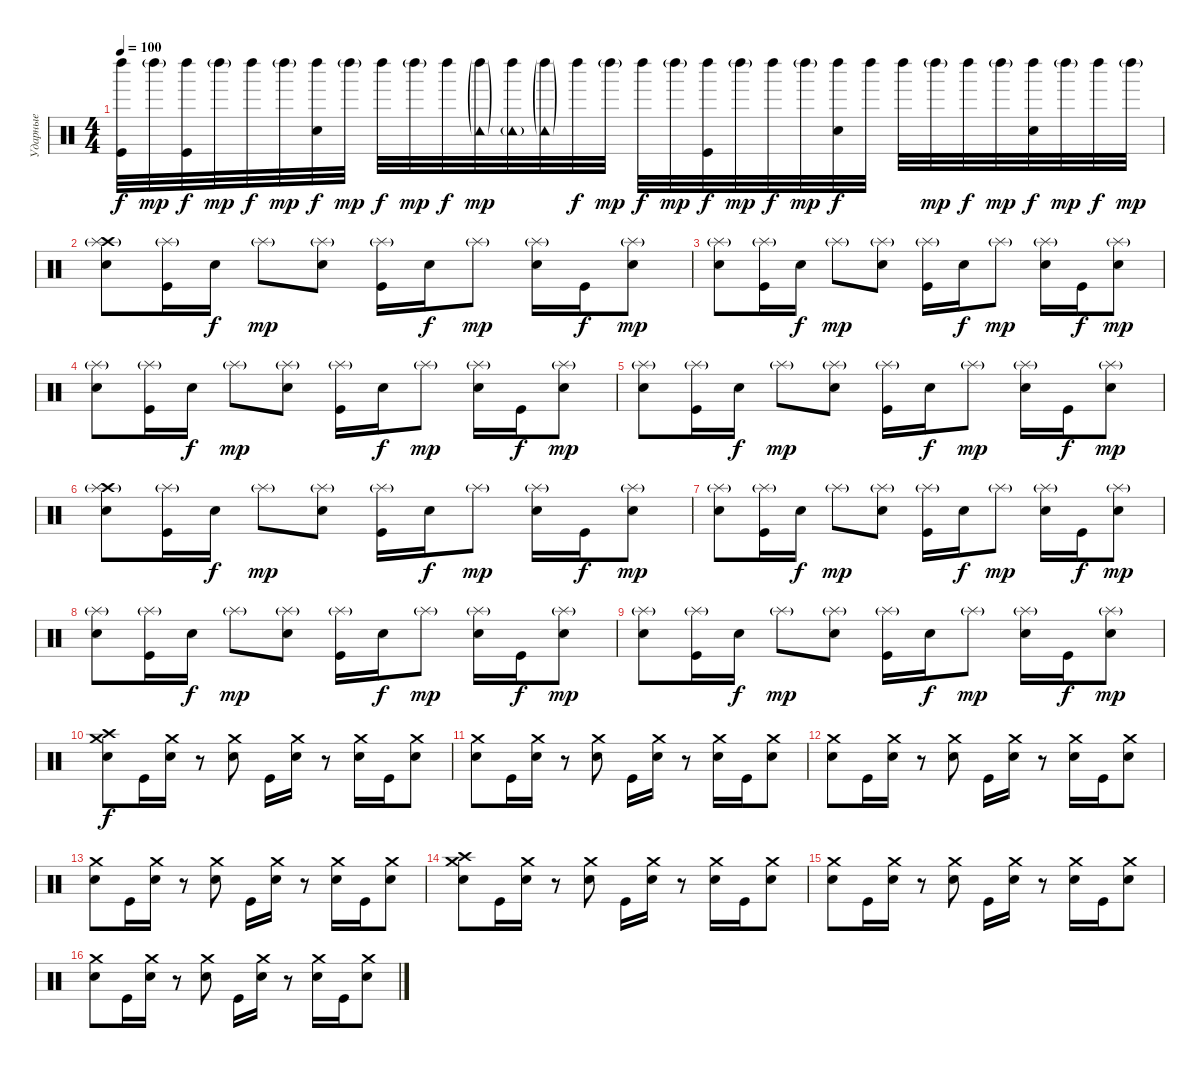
\track ("Ударные" "Ударные") {instrument percussion}
\staff {score}
\articulation defaults
\ts (4 4)
\tempo 100
\clef neutral
\ks c
("Left Maraca (hit)" "Kick (hit)").32{dy f} "Left Maraca (hit)"{g}.32{dy mp} ("Left Maraca (hit)" "Kick (hit)").32{dy f} "Left Maraca (hit)"{g}.32{dy mp} "Left Maraca (hit)".32{dy f} "Left Maraca (hit)"{g}.32{dy mp} ("Left Maraca (hit)" "Electric Snare (hit)").32{dy f} "Left Maraca (hit)"{g}.32{dy mp} "Left Maraca (hit)".32{dy f} "Left Maraca (hit)"{g}.32{dy mp} "Left Maraca (hit)".32{dy f} ("Left Maraca (hit)"{g} "Tambourine (hit)"{g}).32{dy mp} ("Left Maraca (hit)" "Tambourine (hit)"{g}).32 ("Left Maraca (hit)"{g} "Tambourine (hit)"{g}).32 "Left Maraca (hit)".32{dy f} "Left Maraca (hit)"{g}.32{dy mp} "Left Maraca (hit)".32{dy f} "Left Maraca (hit)"{g}.32{dy mp} ("Left Maraca (hit)" "Kick (hit)").32{dy f} "Left Maraca (hit)"{g}.32{dy mp} "Left Maraca (hit)".32{dy f} "Left Maraca (hit)"{g}.32{dy mp} ("Left Maraca (hit)" "Electric Snare (hit)").32{dy f} "Left Maraca (hit)".32 "Left Maraca (hit)".32 "Left Maraca (hit)"{g}.32{dy mp} "Left Maraca (hit)".32{dy f} "Left Maraca (hit)"{g}.32{dy mp} ("Left Maraca (hit)" "Electric Snare (hit)").32{dy f} "Left Maraca (hit)"{g}.32{dy mp} "Left Maraca (hit)".32{dy f} "Left Maraca (hit)"{g}.32{dy mp} |
("Crash high (hit)" "Splash (hit)"{g} "Electric Snare (hit)").8 ("Splash (hit)"{g} "Kick (hit)").16 "Electric Snare (hit)".16{dy f} "Splash (hit)"{g}.8{dy mp} ("Splash (hit)"{g} "Electric Snare (hit)").8 ("Splash (hit)"{g} "Kick (hit)").16 "Electric Snare (hit)".16{dy f} "Splash (hit)"{g}.8{dy mp} ("Splash (hit)"{g} "Electric Snare (hit)").16 "Kick (hit)".16{dy f} ("Splash (hit)"{g} "Electric Snare (hit)").8{dy mp} |
("Splash (hit)"{g} "Electric Snare (hit)").8 ("Splash (hit)"{g} "Kick (hit)").16 "Electric Snare (hit)".16{dy f} "Splash (hit)"{g}.8{dy mp} ("Splash (hit)"{g} "Electric Snare (hit)").8 ("Splash (hit)"{g} "Kick (hit)").16 "Electric Snare (hit)".16{dy f} "Splash (hit)"{g}.8{dy mp} ("Splash (hit)"{g} "Electric Snare (hit)").16 "Kick (hit)".16{dy f} ("Splash (hit)"{g} "Electric Snare (hit)").8{dy mp} |
("Splash (hit)"{g} "Electric Snare (hit)").8 ("Splash (hit)"{g} "Kick (hit)").16 "Electric Snare (hit)".16{dy f} "Splash (hit)"{g}.8{dy mp} ("Splash (hit)"{g} "Electric Snare (hit)").8 ("Splash (hit)"{g} "Kick (hit)").16 "Electric Snare (hit)".16{dy f} "Splash (hit)"{g}.8{dy mp} ("Splash (hit)"{g} "Electric Snare (hit)").16 "Kick (hit)".16{dy f} ("Splash (hit)"{g} "Electric Snare (hit)").8{dy mp} |
("Splash (hit)"{g} "Electric Snare (hit)").8 ("Splash (hit)"{g} "Kick (hit)").16 "Electric Snare (hit)".16{dy f} "Splash (hit)"{g}.8{dy mp} ("Splash (hit)"{g} "Electric Snare (hit)").8 ("Splash (hit)"{g} "Kick (hit)").16 "Electric Snare (hit)".16{dy f} "Splash (hit)"{g}.8{dy mp} ("Splash (hit)"{g} "Electric Snare (hit)").16 "Kick (hit)".16{dy f} ("Splash (hit)"{g} "Electric Snare (hit)").8{dy mp} |
("Crash high (hit)" "Splash (hit)"{g} "Electric Snare (hit)").8 ("Splash (hit)"{g} "Kick (hit)").16 "Electric Snare (hit)".16{dy f} "Splash (hit)"{g}.8{dy mp} ("Splash (hit)"{g} "Electric Snare (hit)").8 ("Splash (hit)"{g} "Kick (hit)").16 "Electric Snare (hit)".16{dy f} "Splash (hit)"{g}.8{dy mp} ("Splash (hit)"{g} "Electric Snare (hit)").16 "Kick (hit)".16{dy f} ("Splash (hit)"{g} "Electric Snare (hit)").8{dy mp} |
("Splash (hit)"{g} "Electric Snare (hit)").8 ("Splash (hit)"{g} "Kick (hit)").16 "Electric Snare (hit)".16{dy f} "Splash (hit)"{g}.8{dy mp} ("Splash (hit)"{g} "Electric Snare (hit)").8 ("Splash (hit)"{g} "Kick (hit)").16 "Electric Snare (hit)".16{dy f} "Splash (hit)"{g}.8{dy mp} ("Splash (hit)"{g} "Electric Snare (hit)").16 "Kick (hit)".16{dy f} ("Splash (hit)"{g} "Electric Snare (hit)").8{dy mp} |
("Splash (hit)"{g} "Electric Snare (hit)").8 ("Splash (hit)"{g} "Kick (hit)").16 "Electric Snare (hit)".16{dy f} "Splash (hit)"{g}.8{dy mp} ("Splash (hit)"{g} "Electric Snare (hit)").8 ("Splash (hit)"{g} "Kick (hit)").16 "Electric Snare (hit)".16{dy f} "Splash (hit)"{g}.8{dy mp} ("Splash (hit)"{g} "Electric Snare (hit)").16 "Kick (hit)".16{dy f} ("Splash (hit)"{g} "Electric Snare (hit)").8{dy mp} |
("Splash (hit)"{g} "Electric Snare (hit)").8 ("Splash (hit)"{g} "Kick (hit)").16 "Electric Snare (hit)".16{dy f} "Splash (hit)"{g}.8{dy mp} ("Splash (hit)"{g} "Electric Snare (hit)").8 ("Splash (hit)"{g} "Kick (hit)").16 "Electric Snare (hit)".16{dy f} "Splash (hit)"{g}.8{dy mp} ("Splash (hit)"{g} "Electric Snare (hit)").16 "Kick (hit)".16{dy f} ("Splash (hit)"{g} "Electric Snare (hit)").8{dy mp} |
("Crash high (hit)" "Crash medium (hit)" "Electric Snare (hit)").8{dy f} "Kick (hit)".16 ("Crash medium (hit)" "Electric Snare (hit)").16 r.8 ("Crash medium (hit)" "Electric Snare (hit)").8 "Kick (hit)".16 ("Crash medium (hit)" "Electric Snare (hit)").16 r.8 ("Crash medium (hit)" "Electric Snare (hit)").16 "Kick (hit)".16 ("Crash medium (hit)" "Electric Snare (hit)").8 |
("Crash medium (hit)" "Electric Snare (hit)").8 "Kick (hit)".16 ("Crash medium (hit)" "Electric Snare (hit)").16 r.8 ("Crash medium (hit)" "Electric Snare (hit)").8 "Kick (hit)".16 ("Crash medium (hit)" "Electric Snare (hit)").16 r.8 ("Crash medium (hit)" "Electric Snare (hit)").16 "Kick (hit)".16 ("Crash medium (hit)" "Electric Snare (hit)").8 |
("Crash medium (hit)" "Electric Snare (hit)").8 "Kick (hit)".16 ("Crash medium (hit)" "Electric Snare (hit)").16 r.8 ("Crash medium (hit)" "Electric Snare (hit)").8 "Kick (hit)".16 ("Crash medium (hit)" "Electric Snare (hit)").16 r.8 ("Crash medium (hit)" "Electric Snare (hit)").16 "Kick (hit)".16 ("Crash medium (hit)" "Electric Snare (hit)").8 |
("Crash medium (hit)" "Electric Snare (hit)").8 "Kick (hit)".16 ("Crash medium (hit)" "Electric Snare (hit)").16 r.8 ("Crash medium (hit)" "Electric Snare (hit)").8 "Kick (hit)".16 ("Crash medium (hit)" "Electric Snare (hit)").16 r.8 ("Crash medium (hit)" "Electric Snare (hit)").16 "Kick (hit)".16 ("Crash medium (hit)" "Electric Snare (hit)").8 |
("Crash high (hit)" "Crash medium (hit)" "Electric Snare (hit)").8 "Kick (hit)".16 ("Crash medium (hit)" "Electric Snare (hit)").16 r.8 ("Crash medium (hit)" "Electric Snare (hit)").8 "Kick (hit)".16 ("Crash medium (hit)" "Electric Snare (hit)").16 r.8 ("Crash medium (hit)" "Electric Snare (hit)").16 "Kick (hit)".16 ("Crash medium (hit)" "Electric Snare (hit)").8 |
("Crash medium (hit)" "Electric Snare (hit)").8 "Kick (hit)".16 ("Crash medium (hit)" "Electric Snare (hit)").16 r.8 ("Crash medium (hit)" "Electric Snare (hit)").8 "Kick (hit)".16 ("Crash medium (hit)" "Electric Snare (hit)").16 r.8 ("Crash medium (hit)" "Electric Snare (hit)").16 "Kick (hit)".16 ("Crash medium (hit)" "Electric Snare (hit)").8 |
("Crash medium (hit)" "Electric Snare (hit)").8 "Kick (hit)".16 ("Crash medium (hit)" "Electric Snare (hit)").16 r.8 ("Crash medium (hit)" "Electric Snare (hit)").8 "Kick (hit)".16 ("Crash medium (hit)" "Electric Snare (hit)").16 r.8 ("Crash medium (hit)" "Electric Snare (hit)").16 "Kick (hit)".16 ("Crash medium (hit)" "Electric Snare (hit)").8
